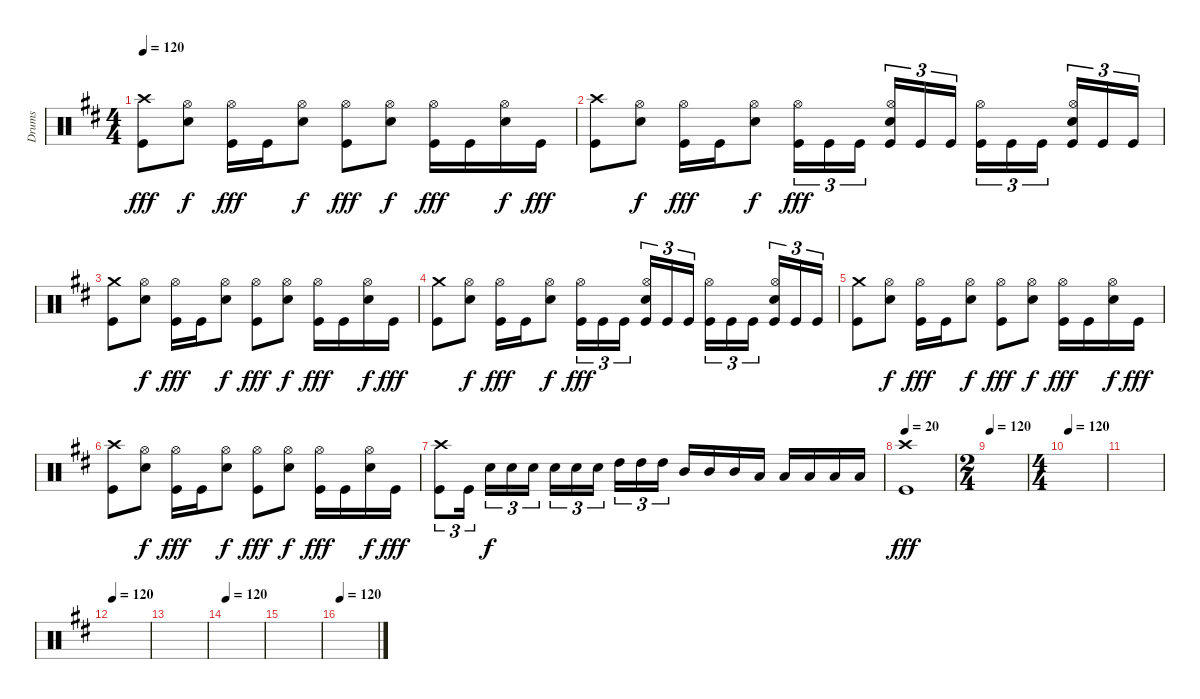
\track ("Drums" "Drums") {instrument percussion}
\staff {score}
\articulation defaults
\ts (4 4)
\tempo 120
\clef neutral
\ks d
("Crash high (hit)" "Kick (hit)").8{dy fff} ("Hi-Hat (open)" "Snare (hit) 2").8{dy f} ("Hi-Hat (open)" "Kick (hit)").16{dy fff} "Kick (hit)".16 ("Hi-Hat (open)" "Snare (hit) 2").8{dy f} ("Hi-Hat (open)" "Kick (hit)").8{dy fff} ("Hi-Hat (open)" "Snare (hit) 2").8{dy f} ("Hi-Hat (open)" "Kick (hit)").16{dy fff} "Kick (hit)".16 ("Hi-Hat (open)" "Snare (hit) 2").16{dy f} "Kick (hit)".16{dy fff} |
("Crash high (hit)" "Kick (hit)").8 ("Hi-Hat (open)" "Snare (hit) 2").8{dy f} ("Hi-Hat (open)" "Kick (hit)").16{dy fff} "Kick (hit)".16 ("Hi-Hat (open)" "Snare (hit) 2").8{dy f} ("Hi-Hat (open)" "Kick (hit)").16{tu (3 2) dy fff} "Kick (hit)".16{tu (3 2)} "Kick (hit)".16{tu (3 2)} ("Hi-Hat (open)" "Snare (hit) 2" "Kick (hit)").16{tu (3 2)} "Kick (hit)".16{tu (3 2)} "Kick (hit)".16{tu (3 2)} ("Hi-Hat (open)" "Kick (hit)").16{tu (3 2)} "Kick (hit)".16{tu (3 2)} "Kick (hit)".16{tu (3 2)} ("Hi-Hat (open)" "Snare (hit) 2" "Kick (hit)").16{tu (3 2)} "Kick (hit)".16{tu (3 2)} "Kick (hit)".16{tu (3 2)} |
("Crash medium (hit)" "Kick (hit)").8 ("Hi-Hat (open)" "Snare (hit) 2").8{dy f} ("Hi-Hat (open)" "Kick (hit)").16{dy fff} "Kick (hit)".16 ("Hi-Hat (open)" "Snare (hit) 2").8{dy f} ("Hi-Hat (open)" "Kick (hit)").8{dy fff} ("Hi-Hat (open)" "Snare (hit) 2").8{dy f} ("Hi-Hat (open)" "Kick (hit)").16{dy fff} "Kick (hit)".16 ("Hi-Hat (open)" "Snare (hit) 2").16{dy f} "Kick (hit)".16{dy fff} |
("Crash medium (hit)" "Kick (hit)").8 ("Hi-Hat (open)" "Snare (hit) 2").8{dy f} ("Hi-Hat (open)" "Kick (hit)").16{dy fff} "Kick (hit)".16 ("Hi-Hat (open)" "Snare (hit) 2").8{dy f} ("Hi-Hat (open)" "Kick (hit)").16{tu (3 2) dy fff} "Kick (hit)".16{tu (3 2)} "Kick (hit)".16{tu (3 2)} ("Hi-Hat (open)" "Snare (hit) 2" "Kick (hit)").16{tu (3 2)} "Kick (hit)".16{tu (3 2)} "Kick (hit)".16{tu (3 2)} ("Hi-Hat (open)" "Kick (hit)").16{tu (3 2)} "Kick (hit)".16{tu (3 2)} "Kick (hit)".16{tu (3 2)} ("Hi-Hat (open)" "Snare (hit) 2" "Kick (hit)").16{tu (3 2)} "Kick (hit)".16{tu (3 2)} "Kick (hit)".16{tu (3 2)} |
("Crash medium (hit)" "Kick (hit)").8 ("Hi-Hat (open)" "Snare (hit) 2").8{dy f} ("Hi-Hat (open)" "Kick (hit)").16{dy fff} "Kick (hit)".16 ("Hi-Hat (open)" "Snare (hit) 2").8{dy f} ("Hi-Hat (open)" "Kick (hit)").8{dy fff} ("Hi-Hat (open)" "Snare (hit) 2").8{dy f} ("Hi-Hat (open)" "Kick (hit)").16{dy fff} "Kick (hit)".16 ("Hi-Hat (open)" "Snare (hit) 2").16{dy f} "Kick (hit)".16{dy fff} |
("Crash high (hit)" "Kick (hit)").8 ("Hi-Hat (open)" "Snare (hit) 2").8{dy f} ("Hi-Hat (open)" "Kick (hit)").16{dy fff} "Kick (hit)".16 ("Hi-Hat (open)" "Snare (hit) 2").8{dy f} ("Hi-Hat (open)" "Kick (hit)").8{dy fff} ("Hi-Hat (open)" "Snare (hit) 2").8{dy f} ("Hi-Hat (open)" "Kick (hit)").16{dy fff} "Kick (hit)".16 ("Hi-Hat (open)" "Snare (hit) 2").16{dy f} "Kick (hit)".16{dy fff} |
("Crash high (hit)" "Kick (hit)").8{tu (3 2)} "Kick (hit)".16{tu (3 2)} "Snare (hit) 2".16{tu (3 2) dy f} "Snare (hit) 2".16{tu (3 2)} "Snare (hit) 2".16{tu (3 2)} "Snare (hit) 2".16{tu (3 2)} "Snare (hit) 2".16{tu (3 2)} "Snare (hit) 2".16{tu (3 2)} "High Tom (hit)".16{tu (3 2)} "High Tom (hit)".16{tu (3 2)} "High Tom (hit)".16{tu (3 2)} "Mid Tom (hit)".16 "Mid Tom (hit)".16 "Mid Tom (hit)".16 "Low Tom (hit)".16 "Low Tom (hit)".16 "Low Tom (hit)".16 "Low Tom (hit)".16 "Low Tom (hit)".16 |
\tempo 20
("Crash high (hit)" "Kick (hit)").1{dy fff} |
\ts (2 4)
\tempo 120
|
\ts (4 4)
\tempo 120
|
|
\tempo 120
|
|
\tempo 120
|
|
\tempo 120
